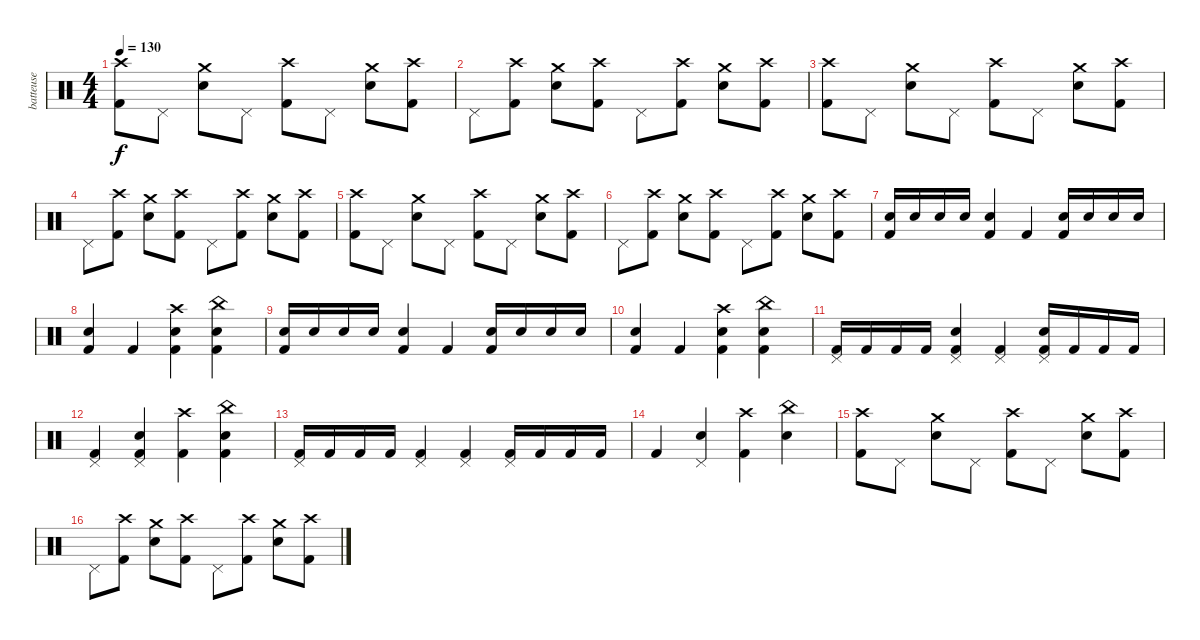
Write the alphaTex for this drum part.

\track ("batteuse" "batteuse") {instrument percussion}
\staff {score}
\articulation defaults
\ts (4 4)
\tempo 130
\clef neutral
\ks c
("Crash high (hit)" "Kick (hit) 2").8{dy f} "Pedal Hi-Hat (hit)".8 ("Crash medium (hit)" "Snare (hit) 2").8 "Pedal Hi-Hat (hit)".8 ("Crash high (hit)" "Kick (hit) 2").8 "Pedal Hi-Hat (hit)".8 ("Crash medium (hit)" "Snare (hit) 2").8 ("Crash high (hit)" "Kick (hit) 2").8 |
"Pedal Hi-Hat (hit)".8 ("Crash high (hit)" "Kick (hit) 2").8 ("Crash medium (hit)" "Snare (hit) 2").8 ("Crash high (hit)" "Kick (hit) 2").8 "Pedal Hi-Hat (hit)".8 ("Crash high (hit)" "Kick (hit) 2").8 ("Crash medium (hit)" "Snare (hit) 2").8 ("Crash high (hit)" "Kick (hit) 2").8 |
("Crash high (hit)" "Kick (hit) 2").8 "Pedal Hi-Hat (hit)".8 ("Crash medium (hit)" "Snare (hit) 2").8 "Pedal Hi-Hat (hit)".8 ("Crash high (hit)" "Kick (hit) 2").8 "Pedal Hi-Hat (hit)".8 ("Crash medium (hit)" "Snare (hit) 2").8 ("Crash high (hit)" "Kick (hit) 2").8 |
"Pedal Hi-Hat (hit)".8 ("Crash high (hit)" "Kick (hit) 2").8 ("Crash medium (hit)" "Snare (hit) 2").8 ("Crash high (hit)" "Kick (hit) 2").8 "Pedal Hi-Hat (hit)".8 ("Crash high (hit)" "Kick (hit) 2").8 ("Crash medium (hit)" "Snare (hit) 2").8 ("Crash high (hit)" "Kick (hit) 2").8 |
("Crash high (hit)" "Kick (hit) 2").8 "Pedal Hi-Hat (hit)".8 ("Crash medium (hit)" "Snare (hit) 2").8 "Pedal Hi-Hat (hit)".8 ("Crash high (hit)" "Kick (hit) 2").8 "Pedal Hi-Hat (hit)".8 ("Crash medium (hit)" "Snare (hit) 2").8 ("Crash high (hit)" "Kick (hit) 2").8 |
"Pedal Hi-Hat (hit)".8 ("Crash high (hit)" "Kick (hit) 2").8 ("Crash medium (hit)" "Snare (hit) 2").8 ("Crash high (hit)" "Kick (hit) 2").8 "Pedal Hi-Hat (hit)".8 ("Crash high (hit)" "Kick (hit) 2").8 ("Crash medium (hit)" "Snare (hit) 2").8 ("Crash high (hit)" "Kick (hit) 2").8 |
("Snare (hit) 2" "Kick (hit) 2").16 "Snare (hit) 2".16 "Snare (hit) 2".16 "Snare (hit) 2".16 ("Snare (hit) 2" "Kick (hit) 2").4 "Kick (hit) 2".4 ("Snare (hit) 2" "Kick (hit) 2").16 "Snare (hit) 2".16 "Snare (hit) 2".16 "Snare (hit) 2".16 |
("Snare (hit) 2" "Kick (hit) 2").4 "Kick (hit) 2".4 ("Crash high (hit)" "Snare (hit) 2" "Kick (hit) 2").4 ("China (hit)" "Snare (hit) 2" "Kick (hit) 2").4 |
("Snare (hit) 2" "Kick (hit) 2").16 "Snare (hit) 2".16 "Snare (hit) 2".16 "Snare (hit) 2".16 ("Snare (hit) 2" "Kick (hit) 2").4 "Kick (hit) 2".4 ("Snare (hit) 2" "Kick (hit) 2").16 "Snare (hit) 2".16 "Snare (hit) 2".16 "Snare (hit) 2".16 |
("Snare (hit) 2" "Kick (hit) 2").4 "Kick (hit) 2".4 ("Crash high (hit)" "Snare (hit) 2" "Kick (hit) 2").4 ("China (hit)" "Snare (hit) 2" "Kick (hit) 2").4 |
("Kick (hit) 2" "Pedal Hi-Hat (hit)").16 "Kick (hit) 2".16 "Kick (hit) 2".16 "Kick (hit) 2".16 ("Snare (hit) 2" "Kick (hit) 2" "Pedal Hi-Hat (hit)").4 ("Kick (hit) 2" "Pedal Hi-Hat (hit)").4 ("Snare (hit) 2" "Kick (hit) 2" "Pedal Hi-Hat (hit)").16 "Kick (hit) 2".16 "Kick (hit) 2".16 "Kick (hit) 2".16 |
("Kick (hit) 2" "Pedal Hi-Hat (hit)").4 ("Snare (hit) 2" "Kick (hit) 2" "Pedal Hi-Hat (hit)").4 ("Crash high (hit)" "Kick (hit) 2").4 ("China (hit)" "Snare (hit) 2" "Kick (hit) 2").4 |
("Kick (hit) 2" "Pedal Hi-Hat (hit)").16 "Kick (hit) 2".16 "Kick (hit) 2".16 "Kick (hit) 2".16 ("Kick (hit) 2" "Pedal Hi-Hat (hit)").4 ("Kick (hit) 2" "Pedal Hi-Hat (hit)").4 ("Kick (hit) 2" "Pedal Hi-Hat (hit)").16 "Kick (hit) 2".16 "Kick (hit) 2".16 "Kick (hit) 2".16 |
"Kick (hit) 2".4 ("Snare (hit) 2" "Pedal Hi-Hat (hit)").4 ("Crash high (hit)" "Kick (hit) 2").4 ("China (hit)" "Snare (hit) 2").4 |
("Crash high (hit)" "Kick (hit) 2").8 "Pedal Hi-Hat (hit)".8 ("Crash medium (hit)" "Snare (hit) 2").8 "Pedal Hi-Hat (hit)".8 ("Crash high (hit)" "Kick (hit) 2").8 "Pedal Hi-Hat (hit)".8 ("Crash medium (hit)" "Snare (hit) 2").8 ("Crash high (hit)" "Kick (hit) 2").8 |
"Pedal Hi-Hat (hit)".8 ("Crash high (hit)" "Kick (hit) 2").8 ("Crash medium (hit)" "Snare (hit) 2").8 ("Crash high (hit)" "Kick (hit) 2").8 "Pedal Hi-Hat (hit)".8 ("Crash high (hit)" "Kick (hit) 2").8 ("Crash medium (hit)" "Snare (hit) 2").8 ("Crash high (hit)" "Kick (hit) 2").8
